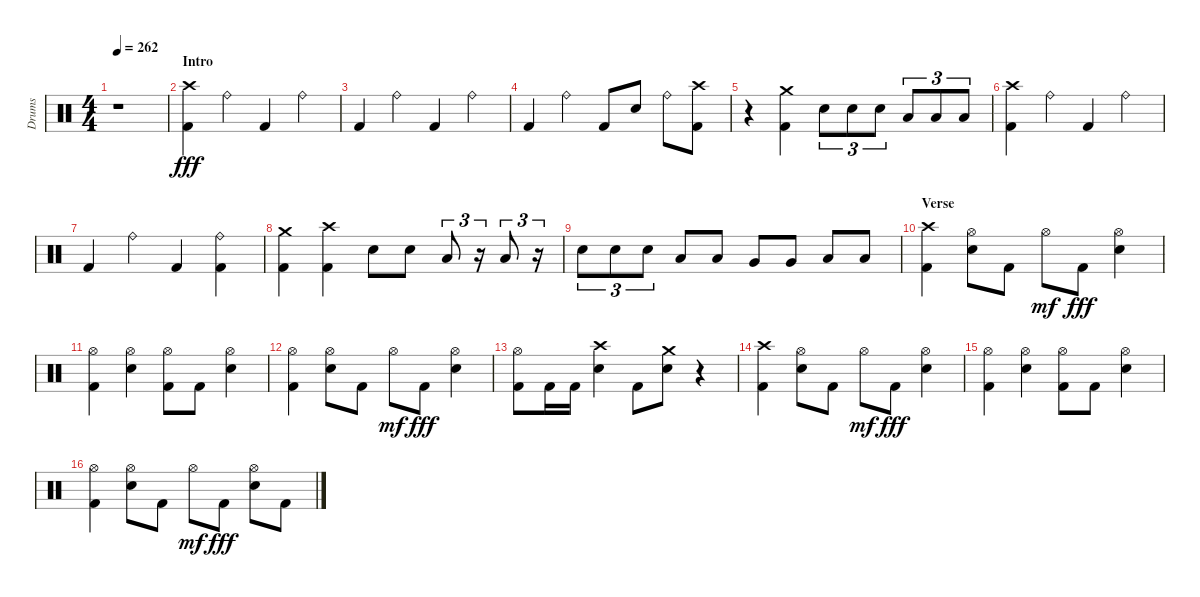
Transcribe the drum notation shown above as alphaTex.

\track ("Drums" "Drums") {instrument percussion}
\staff {score}
\articulation defaults
\ts (4 4)
\tempo 262
\clef neutral
\ks aminor
r.1{dy fff} |
\section ("" "Intro")
("Kick (hit) 2" "Crash high (hit)").4 "Ride (bell)".4 "Kick (hit) 2".4 "Ride (bell)".4 |
"Kick (hit) 2".4 "Ride (bell)".4 "Kick (hit) 2".4 "Ride (bell)".4 |
"Kick (hit) 2".4 "Ride (bell)".4 "Kick (hit) 2".8 "Snare (hit) 2".8 "Ride (bell)".8 ("Kick (hit) 2" "Crash high (hit)").8 |
r.4 ("Kick (hit) 2" "Crash medium (hit)").4 "Snare (hit) 2".8{tu (3 2)} "Snare (hit) 2".8{tu (3 2)} "Snare (hit) 2".8{tu (3 2)} "Low Floor Tom (hit)".8{tu (3 2)} "Low Floor Tom (hit)".8{tu (3 2)} "Low Floor Tom (hit)".8{tu (3 2)} |
("Kick (hit) 2" "Crash high (hit)").4 "Ride (bell)".4 "Kick (hit) 2".4 "Ride (bell)".4 |
"Kick (hit) 2".4 "Ride (bell)".4 "Kick (hit) 2".4 ("Kick (hit) 2" "Ride (bell)").4 |
("Kick (hit) 2" "Crash medium (hit)").4 ("Kick (hit) 2" "Crash high (hit)").4 "Snare (hit) 2".8 "Snare (hit) 2".8 "Low Tom (hit)".8{tu (3 2)} r.16{tu (3 2)} "Low Tom (hit)".8{tu (3 2)} r.16{tu (3 2)} |
"Snare (hit) 2".8{tu (3 2)} "Snare (hit) 2".8{tu (3 2)} "Snare (hit) 2".8{tu (3 2)} "Low Tom (hit)".8 "Low Tom (hit)".8 "Very Low Tom (hit)".8 "Very Low Tom (hit)".8 "Low Floor Tom (hit)".8 "Low Floor Tom (hit)".8 |
\section ("" "Verse")
("Kick (hit) 2" "Crash high (hit)").4 ("Snare (hit) 2" "Hi-Hat (open)").8 "Kick (hit) 2".8 "Hi-Hat (open)".8{dy mf} "Kick (hit) 2".8{dy fff} ("Snare (hit) 2" "Hi-Hat (open)").4 |
("Kick (hit) 2" "Hi-Hat (open)").4 ("Snare (hit) 2" "Hi-Hat (open)").4 ("Kick (hit) 2" "Hi-Hat (open)").8 "Kick (hit) 2".8 ("Snare (hit) 2" "Hi-Hat (open)").4 |
("Kick (hit) 2" "Hi-Hat (open)").4 ("Snare (hit) 2" "Hi-Hat (open)").8 "Kick (hit) 2".8 "Hi-Hat (open)".8{dy mf} "Kick (hit) 2".8{dy fff} ("Snare (hit) 2" "Hi-Hat (open)").4 |
("Kick (hit) 2" "Hi-Hat (open)").8 "Kick (hit) 2".16 "Kick (hit) 2".16 ("Snare (hit) 2" "Crash high (hit)").4 "Kick (hit) 2".8 ("Snare (hit) 2" "Crash medium (hit)").8 r.4 |
("Kick (hit) 2" "Crash high (hit)").4 ("Snare (hit) 2" "Hi-Hat (open)").8 "Kick (hit) 2".8 "Hi-Hat (open)".8{dy mf} "Kick (hit) 2".8{dy fff} ("Snare (hit) 2" "Hi-Hat (open)").4 |
("Kick (hit) 2" "Hi-Hat (open)").4 ("Snare (hit) 2" "Hi-Hat (open)").4 ("Kick (hit) 2" "Hi-Hat (open)").8 "Kick (hit) 2".8 ("Snare (hit) 2" "Hi-Hat (open)").4 |
("Kick (hit) 2" "Hi-Hat (open)").4 ("Snare (hit) 2" "Hi-Hat (open)").8 "Kick (hit) 2".8 "Hi-Hat (open)".8{dy mf} "Kick (hit) 2".8{dy fff} ("Snare (hit) 2" "Hi-Hat (open)").8 "Kick (hit) 2".8
